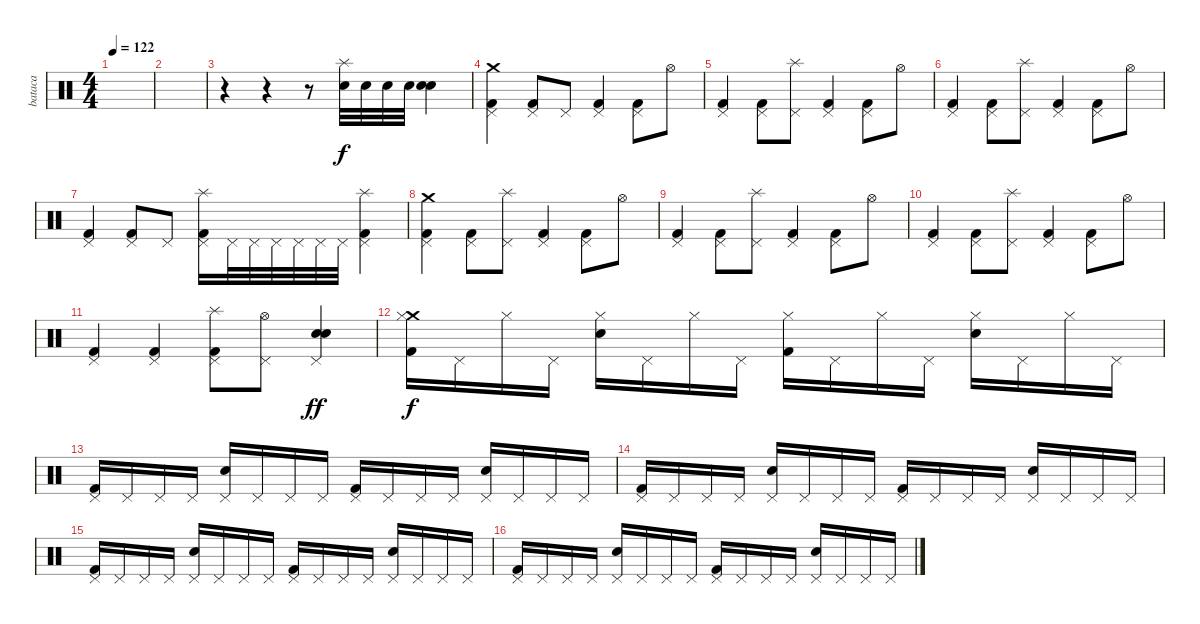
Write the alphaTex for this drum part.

\track ("bataca" "bataca") {instrument percussion}
\staff {score}
\articulation defaults
\ts (4 4)
\tempo 122
\clef neutral
\ks c
|
|
r.4 r.4 r.8 ("Snare (hit) 2" "Splash (hit)").32 "Snare (hit) 2".32 "Snare (hit) 2".32 "Snare (hit) 2".32 ("Snare (hit) 2" "Electric Snare (hit)").4 |
("Kick (hit) 2" "Pedal Hi-Hat (hit)" "Crash medium (hit)").4 ("Kick (hit) 2" "Pedal Hi-Hat (hit)").8 "Pedal Hi-Hat (hit)".8 ("Kick (hit) 2" "Pedal Hi-Hat (hit)").4 ("Kick (hit) 2" "Pedal Hi-Hat (hit)").8 "Hi-Hat (open)".8 |
("Kick (hit) 2" "Pedal Hi-Hat (hit)").4 ("Kick (hit) 2" "Pedal Hi-Hat (hit)").8 ("Pedal Hi-Hat (hit)" "Splash (hit)").8 ("Kick (hit) 2" "Pedal Hi-Hat (hit)").4 ("Kick (hit) 2" "Pedal Hi-Hat (hit)").8 "Hi-Hat (open)".8 |
("Kick (hit) 2" "Pedal Hi-Hat (hit)").4 ("Kick (hit) 2" "Pedal Hi-Hat (hit)").8 ("Pedal Hi-Hat (hit)" "Splash (hit)").8 ("Kick (hit) 2" "Pedal Hi-Hat (hit)").4 ("Kick (hit) 2" "Pedal Hi-Hat (hit)").8 "Hi-Hat (open)".8 |
("Kick (hit) 2" "Pedal Hi-Hat (hit)").4 ("Kick (hit) 2" "Pedal Hi-Hat (hit)").8 "Pedal Hi-Hat (hit)".8 ("Kick (hit) 2" "Pedal Hi-Hat (hit)" "Splash (hit)").16 "Pedal Hi-Hat (hit)".32 "Pedal Hi-Hat (hit)".32 "Pedal Hi-Hat (hit)".32 "Pedal Hi-Hat (hit)".32 "Pedal Hi-Hat (hit)".32 "Pedal Hi-Hat (hit)".32 ("Kick (hit) 2" "Pedal Hi-Hat (hit)" "Splash (hit)").4 |
("Kick (hit) 2" "Pedal Hi-Hat (hit)" "Crash medium (hit)").4 ("Kick (hit) 2" "Pedal Hi-Hat (hit)").8 ("Pedal Hi-Hat (hit)" "Splash (hit)").8 ("Kick (hit) 2" "Pedal Hi-Hat (hit)").4 ("Kick (hit) 2" "Pedal Hi-Hat (hit)").8 "Hi-Hat (open)".8 |
("Kick (hit) 2" "Pedal Hi-Hat (hit)").4 ("Kick (hit) 2" "Pedal Hi-Hat (hit)").8 ("Pedal Hi-Hat (hit)" "Splash (hit)").8 ("Kick (hit) 2" "Pedal Hi-Hat (hit)").4 ("Kick (hit) 2" "Pedal Hi-Hat (hit)").8 "Hi-Hat (open)".8 |
("Kick (hit) 2" "Pedal Hi-Hat (hit)").4 ("Kick (hit) 2" "Pedal Hi-Hat (hit)").8 ("Pedal Hi-Hat (hit)" "Splash (hit)").8 ("Kick (hit) 2" "Pedal Hi-Hat (hit)").4 ("Kick (hit) 2" "Pedal Hi-Hat (hit)").8 "Hi-Hat (open)".8 |
("Kick (hit) 2" "Pedal Hi-Hat (hit)").4 ("Kick (hit) 2" "Pedal Hi-Hat (hit)").4 ("Kick (hit) 2" "Pedal Hi-Hat (hit)" "Splash (hit)").8 ("Pedal Hi-Hat (hit)" "Hi-Hat (open)").8 ("Pedal Hi-Hat (hit)" "Snare (hit) 2" "Electric Snare (hit)").4{dy ff} |
("Kick (hit) 2" "Crash medium (hit)" "Hi-Hat (closed)").16{dy f} "Pedal Hi-Hat (hit)".16 "Hi-Hat (closed)".16 "Pedal Hi-Hat (hit)".16 ("Electric Snare (hit)" "Hi-Hat (closed)").16 "Pedal Hi-Hat (hit)".16 "Hi-Hat (closed)".16 "Pedal Hi-Hat (hit)".16 ("Kick (hit) 2" "Hi-Hat (closed)").16 "Pedal Hi-Hat (hit)".16 "Hi-Hat (closed)".16 "Pedal Hi-Hat (hit)".16 ("Electric Snare (hit)" "Hi-Hat (closed)").16 "Pedal Hi-Hat (hit)".16 "Hi-Hat (closed)".16 "Pedal Hi-Hat (hit)".16 |
("Kick (hit) 2" "Pedal Hi-Hat (hit)").16 "Pedal Hi-Hat (hit)".16 "Pedal Hi-Hat (hit)".16 "Pedal Hi-Hat (hit)".16 ("Electric Snare (hit)" "Pedal Hi-Hat (hit)").16 "Pedal Hi-Hat (hit)".16 "Pedal Hi-Hat (hit)".16 "Pedal Hi-Hat (hit)".16 ("Kick (hit) 2" "Pedal Hi-Hat (hit)").16 "Pedal Hi-Hat (hit)".16 "Pedal Hi-Hat (hit)".16 "Pedal Hi-Hat (hit)".16 ("Electric Snare (hit)" "Pedal Hi-Hat (hit)").16 "Pedal Hi-Hat (hit)".16 "Pedal Hi-Hat (hit)".16 "Pedal Hi-Hat (hit)".16 |
("Kick (hit) 2" "Pedal Hi-Hat (hit)").16 "Pedal Hi-Hat (hit)".16 "Pedal Hi-Hat (hit)".16 "Pedal Hi-Hat (hit)".16 ("Electric Snare (hit)" "Pedal Hi-Hat (hit)").16 "Pedal Hi-Hat (hit)".16 "Pedal Hi-Hat (hit)".16 "Pedal Hi-Hat (hit)".16 ("Kick (hit) 2" "Pedal Hi-Hat (hit)").16 "Pedal Hi-Hat (hit)".16 "Pedal Hi-Hat (hit)".16 "Pedal Hi-Hat (hit)".16 ("Electric Snare (hit)" "Pedal Hi-Hat (hit)").16 "Pedal Hi-Hat (hit)".16 "Pedal Hi-Hat (hit)".16 "Pedal Hi-Hat (hit)".16 |
("Kick (hit) 2" "Pedal Hi-Hat (hit)").16 "Pedal Hi-Hat (hit)".16 "Pedal Hi-Hat (hit)".16 "Pedal Hi-Hat (hit)".16 ("Electric Snare (hit)" "Pedal Hi-Hat (hit)").16 "Pedal Hi-Hat (hit)".16 "Pedal Hi-Hat (hit)".16 "Pedal Hi-Hat (hit)".16 ("Kick (hit) 2" "Pedal Hi-Hat (hit)").16 "Pedal Hi-Hat (hit)".16 "Pedal Hi-Hat (hit)".16 "Pedal Hi-Hat (hit)".16 ("Electric Snare (hit)" "Pedal Hi-Hat (hit)").16 "Pedal Hi-Hat (hit)".16 "Pedal Hi-Hat (hit)".16 "Pedal Hi-Hat (hit)".16 |
("Kick (hit) 2" "Pedal Hi-Hat (hit)").16 "Pedal Hi-Hat (hit)".16 "Pedal Hi-Hat (hit)".16 "Pedal Hi-Hat (hit)".16 ("Electric Snare (hit)" "Pedal Hi-Hat (hit)").16 "Pedal Hi-Hat (hit)".16 "Pedal Hi-Hat (hit)".16 "Pedal Hi-Hat (hit)".16 ("Kick (hit) 2" "Pedal Hi-Hat (hit)").16 "Pedal Hi-Hat (hit)".16 "Pedal Hi-Hat (hit)".16 "Pedal Hi-Hat (hit)".16 ("Electric Snare (hit)" "Pedal Hi-Hat (hit)").16 "Pedal Hi-Hat (hit)".16 "Pedal Hi-Hat (hit)".16 "Pedal Hi-Hat (hit)".16
